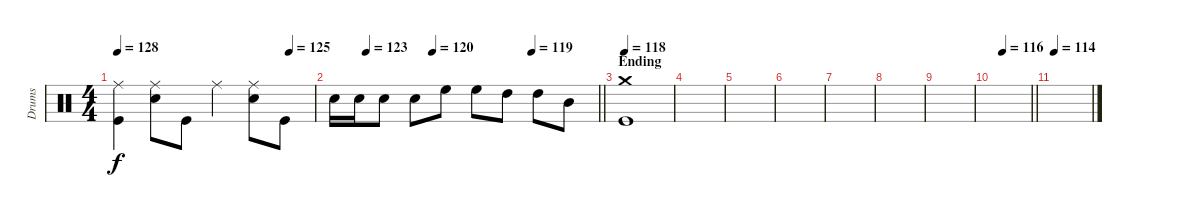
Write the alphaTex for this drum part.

\track ("Drums" "Drums") {instrument percussion}
\staff {score}
\articulation defaults
\ts (4 4)
\tempo 128
\tempo (125 0.875)
\clef neutral
\ks c
("Ride (middle)" "Kick (hit)").4{dy f} ("Snare (hit) 2" "Ride (middle)").8 "Kick (hit)".8 "Ride (middle)".4 ("Snare (hit) 2" "Ride (middle)").8 "Kick (hit)".8 |
\tempo (123 0.125)
\tempo (120 0.375)
\tempo (119 0.75)
\barLineRight lightlight "Snare (hit) 2".16 "Snare (hit) 2".16 "Snare (hit) 2".8 "Snare (hit) 2".8 "High Floor Tom (hit)".8 "High Floor Tom (hit)".8 "High Tom (hit)".8 "High Tom (hit)".8 "Mid Tom (hit)".8
|
\section ("" "Ending")
\tempo 118
("Kick (hit)" "Crash medium (hit)").1{volume 7} |
|
|
|
|
|
|
\tempo (116 0.25)
\barLineRight lightlight
|
\tempo 114
